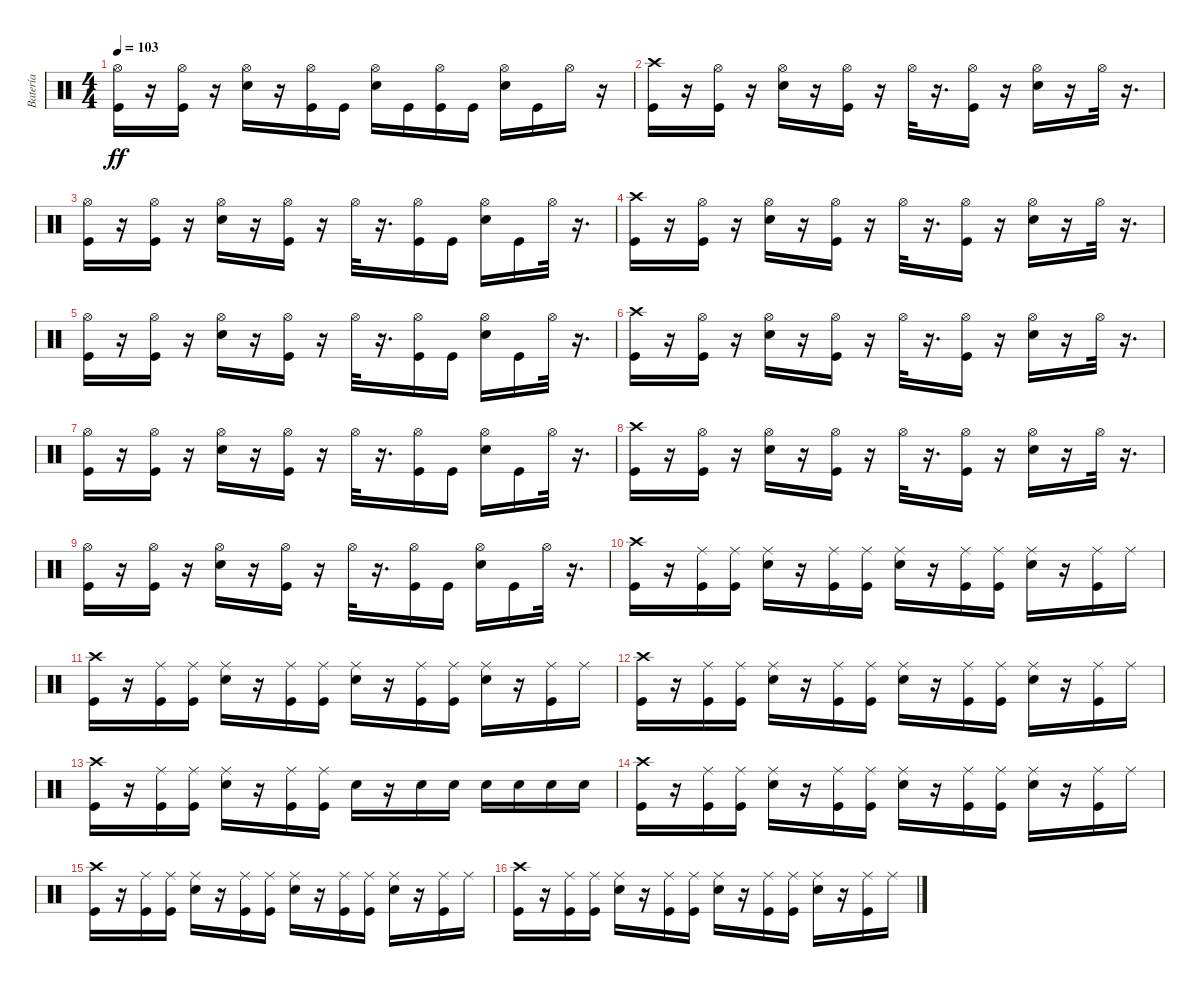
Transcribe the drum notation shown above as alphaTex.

\track ("Batería" "Batería") {instrument percussion}
\staff {score}
\articulation defaults
\ts (4 4)
\tempo 103
\clef neutral
\ks c
("Kick (hit)" "Hi-Hat (open)").16{dy ff} r.16 ("Kick (hit)" "Hi-Hat (open)").16 r.16 ("Snare (hit) 2" "Hi-Hat (open)").16 r.16 ("Kick (hit)" "Hi-Hat (open)").16 "Kick (hit)".16 ("Hi-Hat (open)" "Snare (hit) 2").16 "Kick (hit)".16 ("Kick (hit)" "Hi-Hat (open)").16 "Kick (hit)".16 ("Hi-Hat (open)" "Snare (hit) 2").16 "Kick (hit)".16 "Hi-Hat (open)".16 r.16 |
("Crash high (hit)" "Kick (hit)").16 r.16 ("Kick (hit)" "Hi-Hat (open)").16 r.16 ("Snare (hit) 2" "Hi-Hat (open)").16 r.16 ("Kick (hit)" "Hi-Hat (open)").16 r.16 "Hi-Hat (open)".32 r.16{d} ("Kick (hit)" "Hi-Hat (open)").16 r.16 ("Snare (hit) 2" "Hi-Hat (open)").16 r.16 "Hi-Hat (open)".32 r.16{d} |
("Kick (hit)" "Hi-Hat (open)").16 r.16 ("Kick (hit)" "Hi-Hat (open)").16 r.16 ("Snare (hit) 2" "Hi-Hat (open)").16 r.16 ("Kick (hit)" "Hi-Hat (open)").16 r.16 "Hi-Hat (open)".32 r.16{d} ("Kick (hit)" "Hi-Hat (open)").16 "Kick (hit)".16 ("Snare (hit) 2" "Hi-Hat (open)").16 "Kick (hit)".16 "Hi-Hat (open)".32 r.16{d} |
("Kick (hit)" "Crash high (hit)").16 r.16 ("Kick (hit)" "Hi-Hat (open)").16 r.16 ("Snare (hit) 2" "Hi-Hat (open)").16 r.16 ("Kick (hit)" "Hi-Hat (open)").16 r.16 "Hi-Hat (open)".32 r.16{d} ("Kick (hit)" "Hi-Hat (open)").16 r.16 ("Snare (hit) 2" "Hi-Hat (open)").16 r.16 "Hi-Hat (open)".32 r.16{d} |
("Kick (hit)" "Hi-Hat (open)").16 r.16 ("Kick (hit)" "Hi-Hat (open)").16 r.16 ("Snare (hit) 2" "Hi-Hat (open)").16 r.16 ("Kick (hit)" "Hi-Hat (open)").16 r.16 "Hi-Hat (open)".32 r.16{d} ("Kick (hit)" "Hi-Hat (open)").16 "Kick (hit)".16 ("Snare (hit) 2" "Hi-Hat (open)").16 "Kick (hit)".16 "Hi-Hat (open)".32 r.16{d} |
("Crash high (hit)" "Kick (hit)").16 r.16 ("Kick (hit)" "Hi-Hat (open)").16 r.16 ("Snare (hit) 2" "Hi-Hat (open)").16 r.16 ("Kick (hit)" "Hi-Hat (open)").16 r.16 "Hi-Hat (open)".32 r.16{d} ("Kick (hit)" "Hi-Hat (open)").16 r.16 ("Snare (hit) 2" "Hi-Hat (open)").16 r.16 "Hi-Hat (open)".32 r.16{d} |
("Kick (hit)" "Hi-Hat (open)").16 r.16 ("Kick (hit)" "Hi-Hat (open)").16 r.16 ("Snare (hit) 2" "Hi-Hat (open)").16 r.16 ("Kick (hit)" "Hi-Hat (open)").16 r.16 "Hi-Hat (open)".32 r.16{d} ("Kick (hit)" "Hi-Hat (open)").16 "Kick (hit)".16 ("Snare (hit) 2" "Hi-Hat (open)").16 "Kick (hit)".16 "Hi-Hat (open)".32 r.16{d} |
("Kick (hit)" "Crash high (hit)").16 r.16 ("Kick (hit)" "Hi-Hat (open)").16 r.16 ("Snare (hit) 2" "Hi-Hat (open)").16 r.16 ("Kick (hit)" "Hi-Hat (open)").16 r.16 "Hi-Hat (open)".32 r.16{d} ("Kick (hit)" "Hi-Hat (open)").16 r.16 ("Snare (hit) 2" "Hi-Hat (open)").16 r.16 "Hi-Hat (open)".32 r.16{d} |
("Kick (hit)" "Hi-Hat (open)").16 r.16 ("Kick (hit)" "Hi-Hat (open)").16 r.16 ("Snare (hit) 2" "Hi-Hat (open)").16 r.16 ("Kick (hit)" "Hi-Hat (open)").16 r.16 "Hi-Hat (open)".32 r.16{d} ("Kick (hit)" "Hi-Hat (open)").16 "Kick (hit)".16 ("Snare (hit) 2" "Hi-Hat (open)").16 "Kick (hit)".16 "Hi-Hat (open)".32 r.16{d} |
("Kick (hit)" "Crash high (hit)").16 r.16 ("Kick (hit)" "Ride (middle)").16 ("Kick (hit)" "Ride (middle)").16 ("Ride (middle)" "Snare (hit) 2").16 r.16 ("Kick (hit)" "Ride (middle)").16 ("Kick (hit)" "Ride (middle)").16 ("Ride (middle)" "Snare (hit) 2").16 r.16 ("Kick (hit)" "Ride (middle)").16 ("Kick (hit)" "Ride (middle)").16 ("Ride (middle)" "Snare (hit) 2").16 r.16 ("Kick (hit)" "Ride (middle)").16 "Ride (middle)".16 |
("Crash high (hit)" "Kick (hit)").16 r.16 ("Kick (hit)" "Ride (middle)").16 ("Kick (hit)" "Ride (middle)").16 ("Ride (middle)" "Snare (hit) 2").16 r.16 ("Kick (hit)" "Ride (middle)").16 ("Kick (hit)" "Ride (middle)").16 ("Ride (middle)" "Snare (hit) 2").16 r.16 ("Kick (hit)" "Ride (middle)").16 ("Kick (hit)" "Ride (middle)").16 ("Ride (middle)" "Snare (hit) 2").16 r.16 ("Kick (hit)" "Ride (middle)").16 "Ride (middle)".16 |
("Crash high (hit)" "Kick (hit)").16 r.16 ("Kick (hit)" "Ride (middle)").16 ("Kick (hit)" "Ride (middle)").16 ("Ride (middle)" "Snare (hit) 2").16 r.16 ("Kick (hit)" "Ride (middle)").16 ("Kick (hit)" "Ride (middle)").16 ("Ride (middle)" "Snare (hit) 2").16 r.16 ("Kick (hit)" "Ride (middle)").16 ("Kick (hit)" "Ride (middle)").16 ("Ride (middle)" "Snare (hit) 2").16 r.16 ("Kick (hit)" "Ride (middle)").16 "Ride (middle)".16 |
("Crash high (hit)" "Kick (hit)").16 r.16 ("Kick (hit)" "Ride (middle)").16 ("Kick (hit)" "Ride (middle)").16 ("Ride (middle)" "Snare (hit) 2").16 r.16 ("Kick (hit)" "Ride (middle)").16 ("Kick (hit)" "Ride (middle)").16 "Snare (hit) 2".16 r.16 "Snare (hit) 2".16 "Snare (hit) 2".16 "Snare (hit) 2".16 "Snare (hit) 2".16 "Snare (hit) 2".16 "Snare (hit) 2".16 |
("Kick (hit)" "Crash high (hit)").16 r.16 ("Kick (hit)" "Ride (middle)").16 ("Kick (hit)" "Ride (middle)").16 ("Ride (middle)" "Snare (hit) 2").16 r.16 ("Kick (hit)" "Ride (middle)").16 ("Kick (hit)" "Ride (middle)").16 ("Ride (middle)" "Snare (hit) 2").16 r.16 ("Kick (hit)" "Ride (middle)").16 ("Kick (hit)" "Ride (middle)").16 ("Ride (middle)" "Snare (hit) 2").16 r.16 ("Kick (hit)" "Ride (middle)").16 "Ride (middle)".16 |
("Kick (hit)" "Crash high (hit)").16 r.16 ("Kick (hit)" "Ride (middle)").16 ("Kick (hit)" "Ride (middle)").16 ("Ride (middle)" "Snare (hit) 2").16 r.16 ("Kick (hit)" "Ride (middle)").16 ("Kick (hit)" "Ride (middle)").16 ("Ride (middle)" "Snare (hit) 2").16 r.16 ("Kick (hit)" "Ride (middle)").16 ("Kick (hit)" "Ride (middle)").16 ("Ride (middle)" "Snare (hit) 2").16 r.16 ("Kick (hit)" "Ride (middle)").16 "Ride (middle)".16 |
("Kick (hit)" "Crash high (hit)").16 r.16 ("Kick (hit)" "Ride (middle)").16 ("Kick (hit)" "Ride (middle)").16 ("Ride (middle)" "Snare (hit) 2").16 r.16 ("Kick (hit)" "Ride (middle)").16 ("Kick (hit)" "Ride (middle)").16 ("Ride (middle)" "Snare (hit) 2").16 r.16 ("Kick (hit)" "Ride (middle)").16 ("Kick (hit)" "Ride (middle)").16 ("Ride (middle)" "Snare (hit) 2").16 r.16 ("Kick (hit)" "Ride (middle)").16 "Ride (middle)".16
